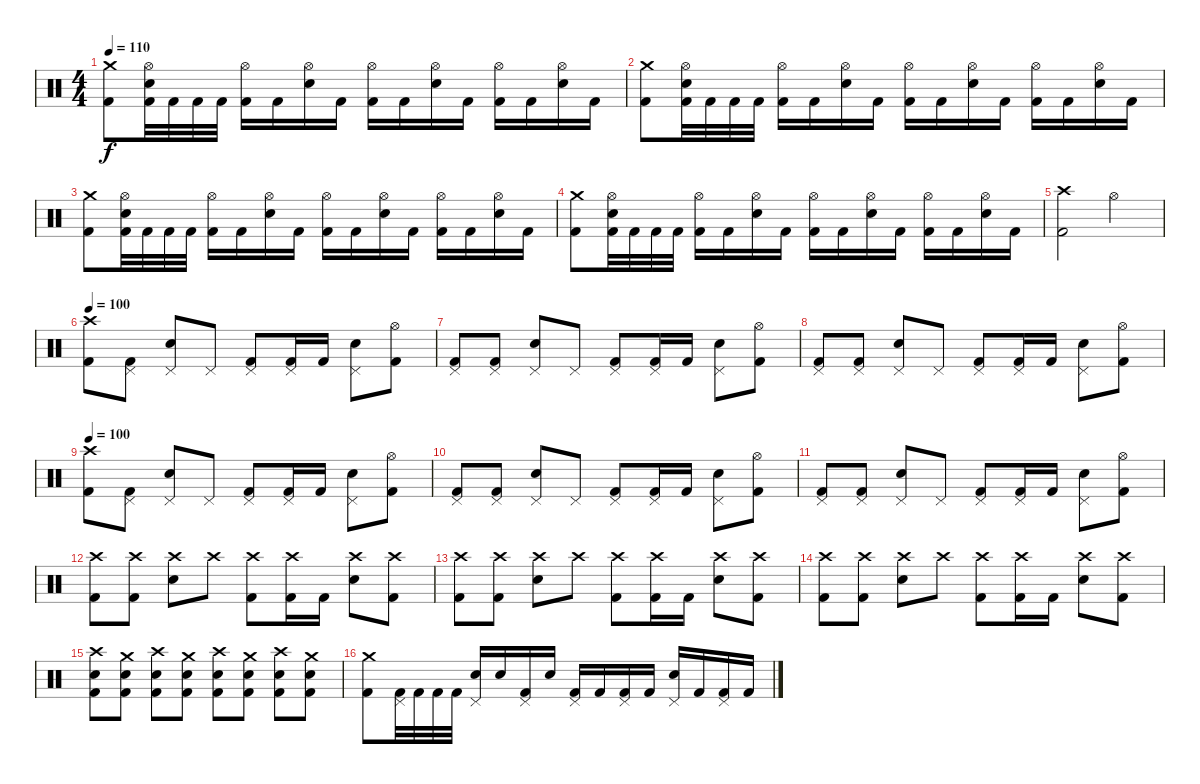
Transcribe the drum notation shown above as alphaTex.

\track "" {instrument percussion}
\staff {score}
\articulation defaults
\ts (4 4)
\tempo 110
\clef neutral
\ks c
("Crash medium (hit)" "Kick (hit) 2").8{dy f} ("Hi-Hat (open)" "Electric Snare (hit)" "Kick (hit) 2").32 "Kick (hit) 2".32 "Kick (hit) 2".32 "Kick (hit) 2".32 ("Hi-Hat (open)" "Kick (hit) 2").16 "Kick (hit) 2".16 ("Hi-Hat (open)" "Electric Snare (hit)").16 "Kick (hit) 2".16 ("Hi-Hat (open)" "Kick (hit) 2").16 "Kick (hit) 2".16 ("Hi-Hat (open)" "Electric Snare (hit)").16 "Kick (hit) 2".16 ("Hi-Hat (open)" "Kick (hit) 2").16 "Kick (hit) 2".16 ("Hi-Hat (open)" "Electric Snare (hit)").16 "Kick (hit) 2".16 |
("Crash medium (hit)" "Kick (hit) 2").8 ("Hi-Hat (open)" "Electric Snare (hit)" "Kick (hit) 2").32 "Kick (hit) 2".32 "Kick (hit) 2".32 "Kick (hit) 2".32 ("Hi-Hat (open)" "Kick (hit) 2").16 "Kick (hit) 2".16 ("Hi-Hat (open)" "Electric Snare (hit)").16 "Kick (hit) 2".16 ("Hi-Hat (open)" "Kick (hit) 2").16 "Kick (hit) 2".16 ("Hi-Hat (open)" "Electric Snare (hit)").16 "Kick (hit) 2".16 ("Hi-Hat (open)" "Kick (hit) 2").16 "Kick (hit) 2".16 ("Hi-Hat (open)" "Electric Snare (hit)").16 "Kick (hit) 2".16 |
("Crash medium (hit)" "Kick (hit) 2").8 ("Hi-Hat (open)" "Electric Snare (hit)" "Kick (hit) 2").32 "Kick (hit) 2".32 "Kick (hit) 2".32 "Kick (hit) 2".32 ("Hi-Hat (open)" "Kick (hit) 2").16 "Kick (hit) 2".16 ("Hi-Hat (open)" "Electric Snare (hit)").16 "Kick (hit) 2".16 ("Hi-Hat (open)" "Kick (hit) 2").16 "Kick (hit) 2".16 ("Hi-Hat (open)" "Electric Snare (hit)").16 "Kick (hit) 2".16 ("Hi-Hat (open)" "Kick (hit) 2").16 "Kick (hit) 2".16 ("Hi-Hat (open)" "Electric Snare (hit)").16 "Kick (hit) 2".16 |
("Crash medium (hit)" "Kick (hit) 2").8 ("Hi-Hat (open)" "Electric Snare (hit)" "Kick (hit) 2").32 "Kick (hit) 2".32 "Kick (hit) 2".32 "Kick (hit) 2".32 ("Hi-Hat (open)" "Kick (hit) 2").16 "Kick (hit) 2".16 ("Hi-Hat (open)" "Electric Snare (hit)").16 "Kick (hit) 2".16 ("Hi-Hat (open)" "Kick (hit) 2").16 "Kick (hit) 2".16 ("Hi-Hat (open)" "Electric Snare (hit)").16 "Kick (hit) 2".16 ("Hi-Hat (open)" "Kick (hit) 2").16 "Kick (hit) 2".16 ("Hi-Hat (open)" "Electric Snare (hit)").16 "Kick (hit) 2".16 |
("Crash high (hit)" "Kick (hit) 2").2 "Hi-Hat (open)".2 |
\tempo 100
("Crash high (hit)" "Kick (hit) 2").8 ("Pedal Hi-Hat (hit)" "Kick (hit) 2").8 ("Pedal Hi-Hat (hit)" "Electric Snare (hit)").8 "Pedal Hi-Hat (hit)".8 ("Pedal Hi-Hat (hit)" "Kick (hit) 2").8 ("Pedal Hi-Hat (hit)" "Kick (hit) 2").16 "Kick (hit) 2".16 ("Pedal Hi-Hat (hit)" "Electric Snare (hit)").8 ("Hi-Hat (open)" "Kick (hit) 2").8 |
("Pedal Hi-Hat (hit)" "Kick (hit) 2").8 ("Pedal Hi-Hat (hit)" "Kick (hit) 2").8 ("Pedal Hi-Hat (hit)" "Electric Snare (hit)").8 "Pedal Hi-Hat (hit)".8 ("Pedal Hi-Hat (hit)" "Kick (hit) 2").8 ("Pedal Hi-Hat (hit)" "Kick (hit) 2").16 "Kick (hit) 2".16 ("Pedal Hi-Hat (hit)" "Electric Snare (hit)").8 ("Hi-Hat (open)" "Kick (hit) 2").8 |
("Pedal Hi-Hat (hit)" "Kick (hit) 2").8 ("Pedal Hi-Hat (hit)" "Kick (hit) 2").8 ("Pedal Hi-Hat (hit)" "Electric Snare (hit)").8 "Pedal Hi-Hat (hit)".8 ("Pedal Hi-Hat (hit)" "Kick (hit) 2").8 ("Pedal Hi-Hat (hit)" "Kick (hit) 2").16 "Kick (hit) 2".16 ("Pedal Hi-Hat (hit)" "Electric Snare (hit)").8 ("Hi-Hat (open)" "Kick (hit) 2").8 |
\tempo 100
("Crash high (hit)" "Kick (hit) 2").8 ("Pedal Hi-Hat (hit)" "Kick (hit) 2").8 ("Pedal Hi-Hat (hit)" "Electric Snare (hit)").8 "Pedal Hi-Hat (hit)".8 ("Pedal Hi-Hat (hit)" "Kick (hit) 2").8 ("Pedal Hi-Hat (hit)" "Kick (hit) 2").16 "Kick (hit) 2".16 ("Pedal Hi-Hat (hit)" "Electric Snare (hit)").8 ("Hi-Hat (open)" "Kick (hit) 2").8 |
("Pedal Hi-Hat (hit)" "Kick (hit) 2").8 ("Pedal Hi-Hat (hit)" "Kick (hit) 2").8 ("Pedal Hi-Hat (hit)" "Electric Snare (hit)").8 "Pedal Hi-Hat (hit)".8 ("Pedal Hi-Hat (hit)" "Kick (hit) 2").8 ("Pedal Hi-Hat (hit)" "Kick (hit) 2").16 "Kick (hit) 2".16 ("Pedal Hi-Hat (hit)" "Electric Snare (hit)").8 ("Hi-Hat (open)" "Kick (hit) 2").8 |
("Pedal Hi-Hat (hit)" "Kick (hit) 2").8 ("Pedal Hi-Hat (hit)" "Kick (hit) 2").8 ("Pedal Hi-Hat (hit)" "Electric Snare (hit)").8 "Pedal Hi-Hat (hit)".8 ("Pedal Hi-Hat (hit)" "Kick (hit) 2").8 ("Pedal Hi-Hat (hit)" "Kick (hit) 2").16 "Kick (hit) 2".16 ("Pedal Hi-Hat (hit)" "Electric Snare (hit)").8 ("Hi-Hat (open)" "Kick (hit) 2").8 |
("Crash high (hit)" "Kick (hit) 2").8 ("Crash high (hit)" "Kick (hit) 2").8 ("Crash high (hit)" "Electric Snare (hit)").8 "Crash high (hit)".8 ("Crash high (hit)" "Kick (hit) 2").8 ("Crash high (hit)" "Kick (hit) 2").16 "Kick (hit) 2".16 ("Crash high (hit)" "Electric Snare (hit)").8 ("Crash high (hit)" "Kick (hit) 2").8 |
("Crash high (hit)" "Kick (hit) 2").8 ("Crash high (hit)" "Kick (hit) 2").8 ("Crash high (hit)" "Electric Snare (hit)").8 "Crash high (hit)".8 ("Crash high (hit)" "Kick (hit) 2").8 ("Crash high (hit)" "Kick (hit) 2").16 "Kick (hit) 2".16 ("Crash high (hit)" "Electric Snare (hit)").8 ("Crash high (hit)" "Kick (hit) 2").8 |
("Crash high (hit)" "Kick (hit) 2").8 ("Crash high (hit)" "Kick (hit) 2").8 ("Crash high (hit)" "Electric Snare (hit)").8 "Crash high (hit)".8 ("Crash high (hit)" "Kick (hit) 2").8 ("Crash high (hit)" "Kick (hit) 2").16 "Kick (hit) 2".16 ("Crash high (hit)" "Electric Snare (hit)").8 ("Crash high (hit)" "Kick (hit) 2").8 |
("Crash high (hit)" "Electric Snare (hit)" "Kick (hit) 2").8 ("Crash medium (hit)" "Electric Snare (hit)" "Kick (hit) 2").8 ("Crash high (hit)" "Electric Snare (hit)" "Kick (hit) 2").8 ("Crash medium (hit)" "Electric Snare (hit)" "Kick (hit) 2").8 ("Crash high (hit)" "Electric Snare (hit)" "Kick (hit) 2").8 ("Crash medium (hit)" "Electric Snare (hit)" "Kick (hit) 2").8 ("Crash high (hit)" "Electric Snare (hit)" "Kick (hit) 2").8 ("Crash medium (hit)" "Electric Snare (hit)" "Kick (hit) 2").8 |
("Crash medium (hit)" "Kick (hit) 2").8 ("Pedal Hi-Hat (hit)" "Kick (hit) 2").32 "Kick (hit) 2".32 "Kick (hit) 2".32 "Kick (hit) 2".32 ("Pedal Hi-Hat (hit)" "Electric Snare (hit)").16 "Electric Snare (hit)".16 ("Pedal Hi-Hat (hit)" "Kick (hit) 2").16 "Electric Snare (hit)".16 ("Pedal Hi-Hat (hit)" "Kick (hit) 2").16 "Kick (hit) 2".16 ("Pedal Hi-Hat (hit)" "Kick (hit) 2").16 "Kick (hit) 2".16 ("Pedal Hi-Hat (hit)" "Electric Snare (hit)").16 "Kick (hit) 2".16 ("Pedal Hi-Hat (hit)" "Kick (hit) 2").16 "Kick (hit) 2".16
